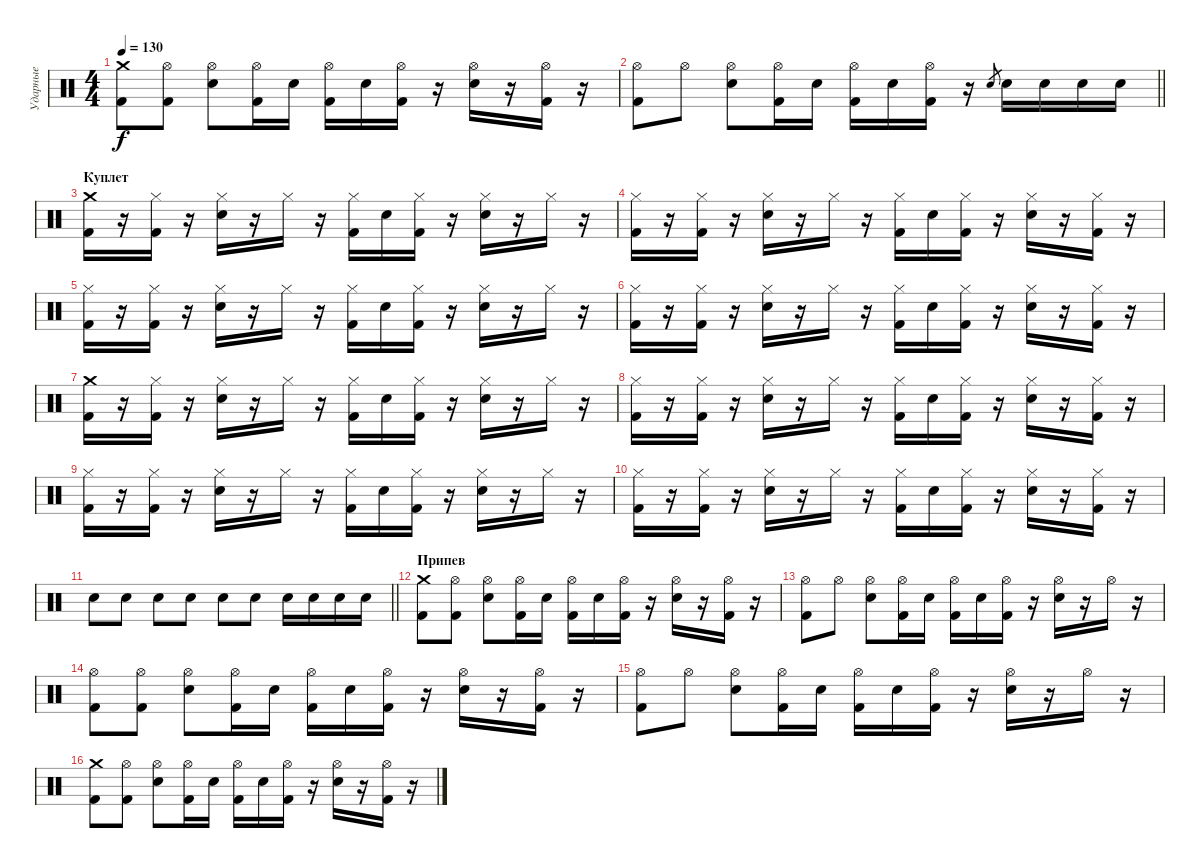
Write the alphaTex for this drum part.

\track ("Ударные" "Ударные") {instrument percussion}
\staff {score}
\articulation defaults
\ts (4 4)
\tempo 130
\clef neutral
\ks c
("Kick (hit) 2" "Crash medium (hit)").8{dy f} ("Kick (hit) 2" "Hi-Hat (open)").8 ("Electric Snare (hit)" "Hi-Hat (open)").8 ("Kick (hit) 2" "Hi-Hat (open)").16 "Electric Snare (hit)".16 ("Hi-Hat (open)" "Kick (hit) 2").16 "Electric Snare (hit)".16 ("Hi-Hat (open)" "Kick (hit) 2").16 r.16 ("Electric Snare (hit)" "Hi-Hat (open)").16 r.16 ("Kick (hit) 2" "Hi-Hat (open)").16 r.16 |
\barLineRight lightlight
("Kick (hit) 2" "Hi-Hat (open)").8 "Hi-Hat (open)".8 ("Electric Snare (hit)" "Hi-Hat (open)").8 ("Kick (hit) 2" "Hi-Hat (open)").16 "Electric Snare (hit)".16 ("Hi-Hat (open)" "Kick (hit) 2").16 "Electric Snare (hit)".16 ("Hi-Hat (open)" "Kick (hit) 2").16 r.16 "Electric Snare (hit)".8{gr} "Electric Snare (hit)".16 "Electric Snare (hit)".16 "Electric Snare (hit)".16 "Electric Snare (hit)".16 |
\section ("" "Куплет")
("Kick (hit) 2" "Crash medium (hit)").16 r.16 ("Kick (hit) 2" "Hi-Hat (closed)").16 r.16 ("Hi-Hat (closed)" "Electric Snare (hit)").16 r.16 "Hi-Hat (closed)".16 r.16 ("Hi-Hat (closed)" "Kick (hit) 2").16 "Electric Snare (hit)".16 ("Hi-Hat (closed)" "Kick (hit) 2").16 r.16 ("Hi-Hat (closed)" "Electric Snare (hit)").16 r.16 "Hi-Hat (closed)".16 r.16 |
("Kick (hit) 2" "Hi-Hat (closed)").16 r.16 ("Kick (hit) 2" "Hi-Hat (closed)").16 r.16 ("Hi-Hat (closed)" "Electric Snare (hit)").16 r.16 "Hi-Hat (closed)".16 r.16 ("Hi-Hat (closed)" "Kick (hit) 2").16 "Electric Snare (hit)".16 ("Hi-Hat (closed)" "Kick (hit) 2").16 r.16 ("Hi-Hat (closed)" "Electric Snare (hit)").16 r.16 ("Hi-Hat (closed)" "Kick (hit) 2").16 r.16 |
("Kick (hit) 2" "Hi-Hat (closed)").16 r.16 ("Kick (hit) 2" "Hi-Hat (closed)").16 r.16 ("Hi-Hat (closed)" "Electric Snare (hit)").16 r.16 "Hi-Hat (closed)".16 r.16 ("Hi-Hat (closed)" "Kick (hit) 2").16 "Electric Snare (hit)".16 ("Hi-Hat (closed)" "Kick (hit) 2").16 r.16 ("Hi-Hat (closed)" "Electric Snare (hit)").16 r.16 "Hi-Hat (closed)".16 r.16 |
("Kick (hit) 2" "Hi-Hat (closed)").16 r.16 ("Kick (hit) 2" "Hi-Hat (closed)").16 r.16 ("Hi-Hat (closed)" "Electric Snare (hit)").16 r.16 "Hi-Hat (closed)".16 r.16 ("Hi-Hat (closed)" "Kick (hit) 2").16 "Electric Snare (hit)".16 ("Hi-Hat (closed)" "Kick (hit) 2").16 r.16 ("Hi-Hat (closed)" "Electric Snare (hit)").16 r.16 ("Hi-Hat (closed)" "Kick (hit) 2").16 r.16 |
("Kick (hit) 2" "Crash medium (hit)").16 r.16 ("Kick (hit) 2" "Hi-Hat (closed)").16 r.16 ("Hi-Hat (closed)" "Electric Snare (hit)").16 r.16 "Hi-Hat (closed)".16 r.16 ("Hi-Hat (closed)" "Kick (hit) 2").16 "Electric Snare (hit)".16 ("Hi-Hat (closed)" "Kick (hit) 2").16 r.16 ("Hi-Hat (closed)" "Electric Snare (hit)").16 r.16 "Hi-Hat (closed)".16 r.16 |
("Kick (hit) 2" "Hi-Hat (closed)").16 r.16 ("Kick (hit) 2" "Hi-Hat (closed)").16 r.16 ("Hi-Hat (closed)" "Electric Snare (hit)").16 r.16 "Hi-Hat (closed)".16 r.16 ("Hi-Hat (closed)" "Kick (hit) 2").16 "Electric Snare (hit)".16 ("Hi-Hat (closed)" "Kick (hit) 2").16 r.16 ("Hi-Hat (closed)" "Electric Snare (hit)").16 r.16 ("Hi-Hat (closed)" "Kick (hit) 2").16 r.16 |
("Kick (hit) 2" "Hi-Hat (closed)").16 r.16 ("Kick (hit) 2" "Hi-Hat (closed)").16 r.16 ("Hi-Hat (closed)" "Electric Snare (hit)").16 r.16 "Hi-Hat (closed)".16 r.16 ("Hi-Hat (closed)" "Kick (hit) 2").16 "Electric Snare (hit)".16 ("Hi-Hat (closed)" "Kick (hit) 2").16 r.16 ("Hi-Hat (closed)" "Electric Snare (hit)").16 r.16 "Hi-Hat (closed)".16 r.16 |
("Kick (hit) 2" "Hi-Hat (closed)").16 r.16 ("Kick (hit) 2" "Hi-Hat (closed)").16 r.16 ("Hi-Hat (closed)" "Electric Snare (hit)").16 r.16 "Hi-Hat (closed)".16 r.16 ("Hi-Hat (closed)" "Kick (hit) 2").16 "Electric Snare (hit)".16 ("Hi-Hat (closed)" "Kick (hit) 2").16 r.16 ("Hi-Hat (closed)" "Electric Snare (hit)").16 r.16 ("Hi-Hat (closed)" "Kick (hit) 2").16 r.16 |
\barLineRight lightlight "Electric Snare (hit)".8 "Electric Snare (hit)".8 "Electric Snare (hit)".8 "Electric Snare (hit)".8 "Electric Snare (hit)".8 "Electric Snare (hit)".8 "Electric Snare (hit)".16 "Electric Snare (hit)".16 "Electric Snare (hit)".16 "Electric Snare (hit)".16
|
\section ("" "Припев")
("Kick (hit) 2" "Crash medium (hit)").8 ("Kick (hit) 2" "Hi-Hat (open)").8 ("Electric Snare (hit)" "Hi-Hat (open)").8 ("Kick (hit) 2" "Hi-Hat (open)").16 "Electric Snare (hit)".16 ("Hi-Hat (open)" "Kick (hit) 2").16 "Electric Snare (hit)".16 ("Hi-Hat (open)" "Kick (hit) 2").16 r.16 ("Electric Snare (hit)" "Hi-Hat (open)").16 r.16 ("Kick (hit) 2" "Hi-Hat (open)").16 r.16 |
("Kick (hit) 2" "Hi-Hat (open)").8 "Hi-Hat (open)".8 ("Electric Snare (hit)" "Hi-Hat (open)").8 ("Kick (hit) 2" "Hi-Hat (open)").16 "Electric Snare (hit)".16 ("Hi-Hat (open)" "Kick (hit) 2").16 "Electric Snare (hit)".16 ("Hi-Hat (open)" "Kick (hit) 2").16 r.16 ("Electric Snare (hit)" "Hi-Hat (open)").16 r.16 "Hi-Hat (open)".16 r.16 |
("Kick (hit) 2" "Hi-Hat (open)").8 ("Kick (hit) 2" "Hi-Hat (open)").8 ("Electric Snare (hit)" "Hi-Hat (open)").8 ("Kick (hit) 2" "Hi-Hat (open)").16 "Electric Snare (hit)".16 ("Hi-Hat (open)" "Kick (hit) 2").16 "Electric Snare (hit)".16 ("Hi-Hat (open)" "Kick (hit) 2").16 r.16 ("Electric Snare (hit)" "Hi-Hat (open)").16 r.16 ("Kick (hit) 2" "Hi-Hat (open)").16 r.16 |
("Kick (hit) 2" "Hi-Hat (open)").8 "Hi-Hat (open)".8 ("Electric Snare (hit)" "Hi-Hat (open)").8 ("Kick (hit) 2" "Hi-Hat (open)").16 "Electric Snare (hit)".16 ("Hi-Hat (open)" "Kick (hit) 2").16 "Electric Snare (hit)".16 ("Hi-Hat (open)" "Kick (hit) 2").16 r.16 ("Electric Snare (hit)" "Hi-Hat (open)").16 r.16 "Hi-Hat (open)".16 r.16 |
("Kick (hit) 2" "Crash medium (hit)").8 ("Kick (hit) 2" "Hi-Hat (open)").8 ("Electric Snare (hit)" "Hi-Hat (open)").8 ("Kick (hit) 2" "Hi-Hat (open)").16 "Electric Snare (hit)".16 ("Hi-Hat (open)" "Kick (hit) 2").16 "Electric Snare (hit)".16 ("Hi-Hat (open)" "Kick (hit) 2").16 r.16 ("Electric Snare (hit)" "Hi-Hat (open)").16 r.16 ("Kick (hit) 2" "Hi-Hat (open)").16 r.16
